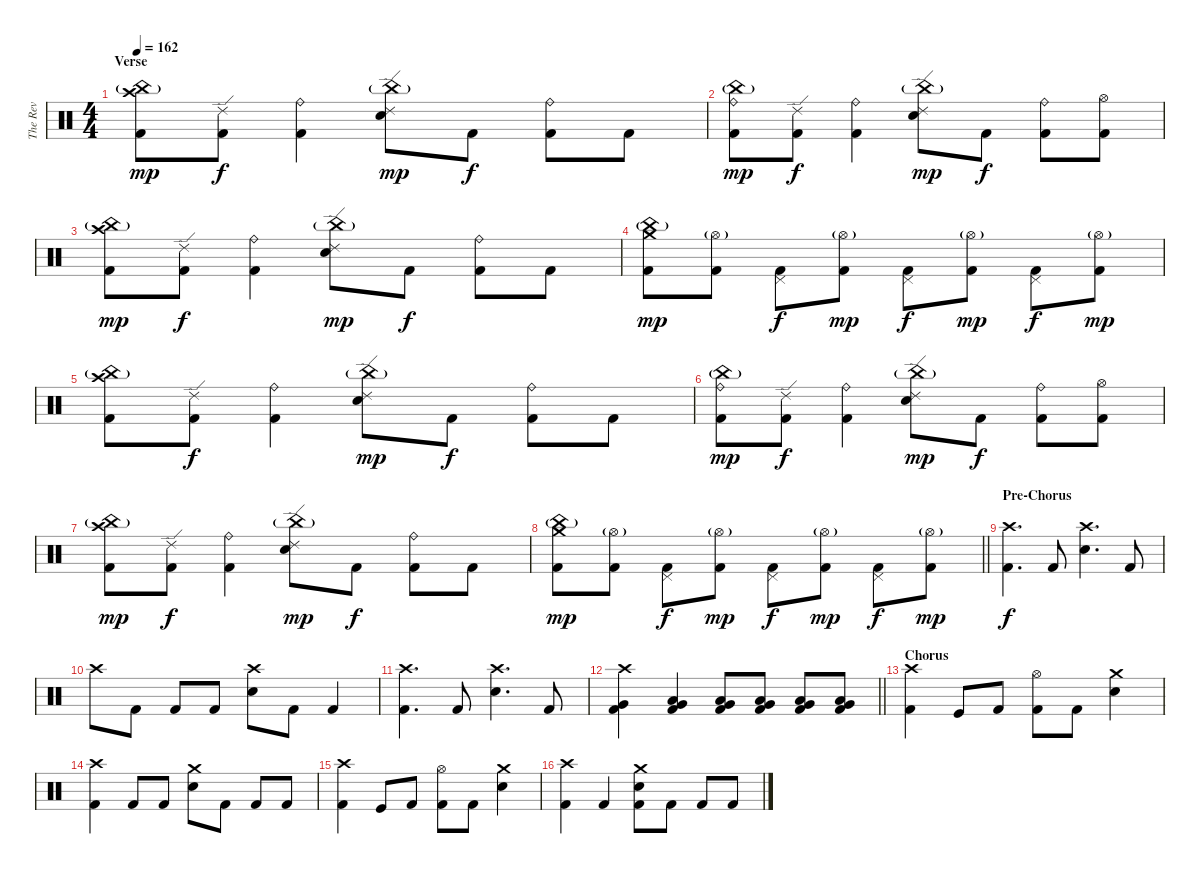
\track ("The Rev" "The Rev") {instrument percussion}
\staff {score}
\articulation defaults
\ts (4 4)
\section ("" "Verse")
\tempo 162
\clef neutral
\ks c
("Crash high (hit)" "China (hit)"{g} "Kick (hit) 2").8{dy mp} ("Ride (edge) 2" "Kick (hit) 2").8{dy f} ("Ride (bell)" "Kick (hit) 2").4 ("Ride (edge) 2" "China (hit)"{g} "Electric Snare (hit)").8{dy mp} "Kick (hit) 2".8{dy f} ("Ride (bell)" "Kick (hit) 2").8 "Kick (hit) 2".8 |
("Ride (bell)" "China (hit)"{g} "Kick (hit) 2").8{dy mp} ("Ride (edge) 2" "Kick (hit) 2").8{dy f} ("Ride (bell)" "Kick (hit) 2").4 ("Ride (edge) 2" "China (hit)"{g} "Electric Snare (hit)").8{dy mp} "Kick (hit) 2".8{dy f} ("Ride (bell)" "Kick (hit) 2").8 ("Hi-Hat (open)" "Kick (hit) 2").8 |
("Crash high (hit)" "China (hit)"{g} "Kick (hit) 2").8{dy mp} ("Ride (edge) 2" "Kick (hit) 2").8{dy f} ("Ride (bell)" "Kick (hit) 2").4 ("Ride (edge) 2" "China (hit)"{g} "Electric Snare (hit)").8{dy mp} "Kick (hit) 2".8{dy f} ("Ride (bell)" "Kick (hit) 2").8 "Kick (hit) 2".8 |
("Crash medium (hit)" "China (hit)"{g} "Kick (hit) 2").8{dy mp} ("Hi-Hat (open)"{g} "Kick (hit) 2").8 ("Pedal Hi-Hat (hit)" "Kick (hit) 2").8{dy f} ("Hi-Hat (open)"{g} "Kick (hit) 2").8{dy mp} ("Pedal Hi-Hat (hit)" "Kick (hit) 2").8{dy f} ("Hi-Hat (open)"{g} "Kick (hit) 2").8{dy mp} ("Pedal Hi-Hat (hit)" "Kick (hit) 2").8{dy f} ("Hi-Hat (open)"{g} "Kick (hit) 2").8{dy mp} |
("Crash high (hit)" "China (hit)"{g} "Kick (hit) 2").8 ("Ride (edge) 2" "Kick (hit) 2").8{dy f} ("Ride (bell)" "Kick (hit) 2").4 ("Ride (edge) 2" "China (hit)"{g} "Electric Snare (hit)").8{dy mp} "Kick (hit) 2".8{dy f} ("Ride (bell)" "Kick (hit) 2").8 "Kick (hit) 2".8 |
("Ride (bell)" "China (hit)"{g} "Kick (hit) 2").8{dy mp} ("Ride (edge) 2" "Kick (hit) 2").8{dy f} ("Ride (bell)" "Kick (hit) 2").4 ("Ride (edge) 2" "China (hit)"{g} "Electric Snare (hit)").8{dy mp} "Kick (hit) 2".8{dy f} ("Ride (bell)" "Kick (hit) 2").8 ("Hi-Hat (open)" "Kick (hit) 2").8 |
("Crash high (hit)" "China (hit)"{g} "Kick (hit) 2").8{dy mp} ("Ride (edge) 2" "Kick (hit) 2").8{dy f} ("Ride (bell)" "Kick (hit) 2").4 ("Ride (edge) 2" "China (hit)"{g} "Electric Snare (hit)").8{dy mp} "Kick (hit) 2".8{dy f} ("Ride (bell)" "Kick (hit) 2").8 "Kick (hit) 2".8 |
\barLineRight lightlight
("Crash medium (hit)" "China (hit)"{g} "Kick (hit) 2").8{dy mp} ("Hi-Hat (open)"{g} "Kick (hit) 2").8 ("Pedal Hi-Hat (hit)" "Kick (hit) 2").8{dy f} ("Hi-Hat (open)"{g} "Kick (hit) 2").8{dy mp} ("Pedal Hi-Hat (hit)" "Kick (hit) 2").8{dy f} ("Hi-Hat (open)"{g} "Kick (hit) 2").8{dy mp} ("Pedal Hi-Hat (hit)" "Kick (hit) 2").8{dy f} ("Hi-Hat (open)"{g} "Kick (hit) 2").8{dy mp} |
\section ("" "Pre-Chorus")
("Crash high (hit)" "Kick (hit) 2").4{d dy f} "Kick (hit) 2".8 ("Crash high (hit)" "Electric Snare (hit)").4{d} "Kick (hit) 2".8 |
"Crash high (hit)".8 "Kick (hit) 2".8 "Kick (hit) 2".8 "Kick (hit) 2".8 ("Crash high (hit)" "Electric Snare (hit)").8 "Kick (hit) 2".8 "Kick (hit) 2".4 |
("Crash high (hit)" "Kick (hit) 2").4{d} "Kick (hit) 2".8 ("Crash high (hit)" "Electric Snare (hit)").4{d} "Kick (hit) 2".8 |
\barLineRight lightlight
("Crash high (hit)" "Very Low Tom (hit)" "Kick (hit) 2").4 ("Low Floor Tom (hit)" "Very Low Tom (hit)" "Kick (hit) 2").4 ("Low Floor Tom (hit)" "Very Low Tom (hit)" "Kick (hit) 2").8 ("Low Floor Tom (hit)" "Very Low Tom (hit)" "Kick (hit) 2").8 ("Low Floor Tom (hit)" "Very Low Tom (hit)" "Kick (hit) 2").8 ("Low Floor Tom (hit)" "Very Low Tom (hit)" "Kick (hit) 2").8 |
\section ("" "Chorus")
("Crash high (hit)" "Kick (hit) 2").4 "Kick (hit)".8 "Kick (hit) 2".8 ("Hi-Hat (open)" "Kick (hit) 2").8 "Kick (hit) 2".8 ("Crash medium (hit)" "Electric Snare (hit)").4 |
("Crash high (hit)" "Kick (hit) 2").4 "Kick (hit) 2".8 "Kick (hit) 2".8 ("Crash medium (hit)" "Electric Snare (hit)").8 "Kick (hit) 2".8 "Kick (hit) 2".8 "Kick (hit) 2".8 |
("Crash high (hit)" "Kick (hit) 2").4 "Kick (hit)".8 "Kick (hit) 2".8 ("Hi-Hat (open)" "Kick (hit) 2").8 "Kick (hit) 2".8 ("Crash medium (hit)" "Electric Snare (hit)").4 |
("Crash high (hit)" "Kick (hit) 2").4 "Kick (hit) 2".4 ("Crash medium (hit)" "Electric Snare (hit)" "Kick (hit) 2").8 "Kick (hit) 2".8 "Kick (hit) 2".8 "Kick (hit) 2".8
